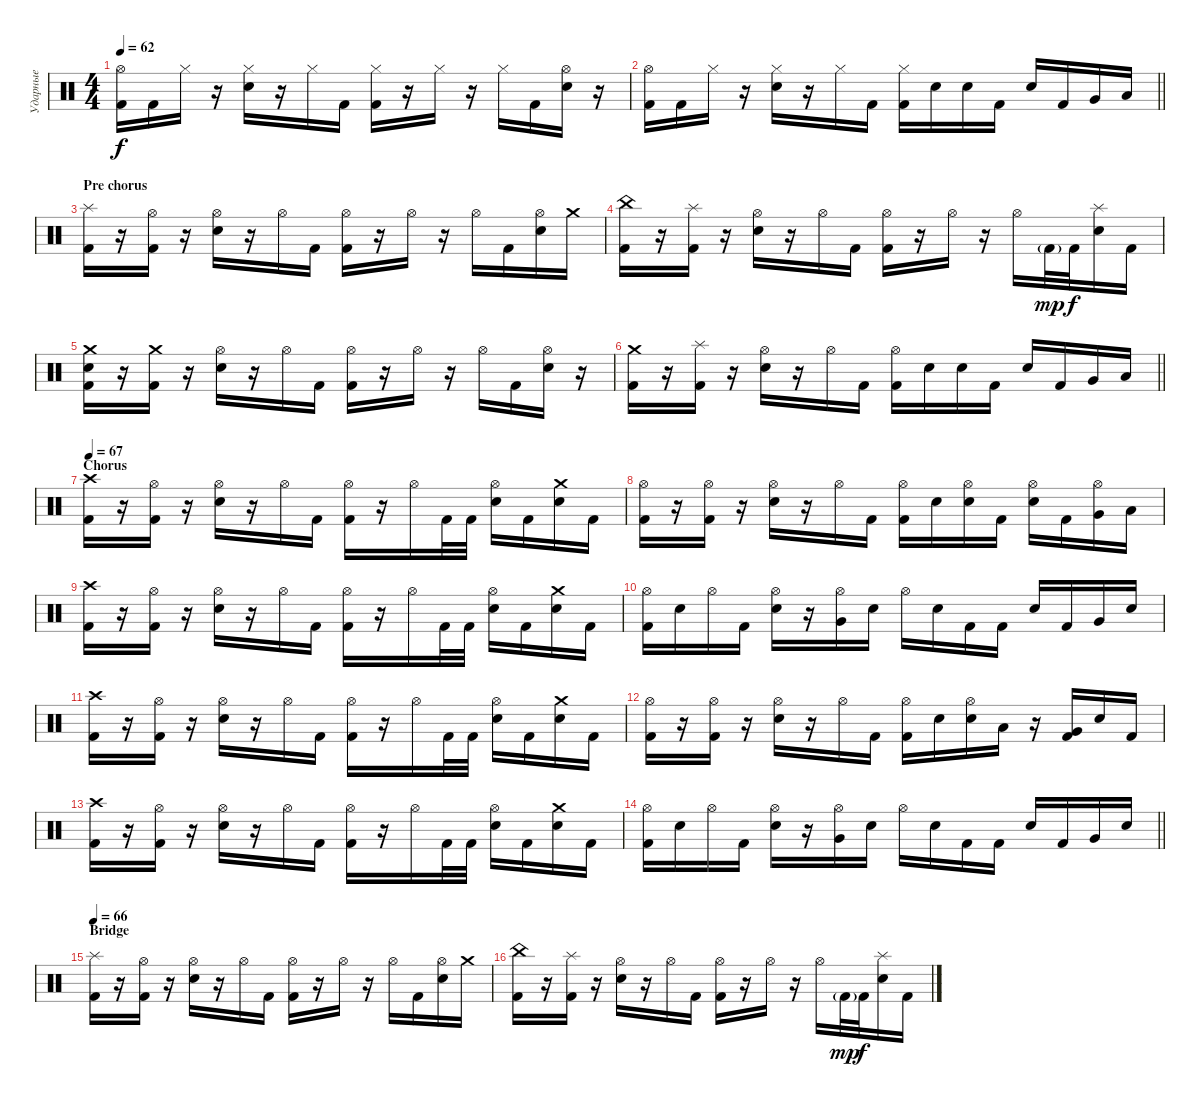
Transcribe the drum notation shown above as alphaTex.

\track ("Ударные" "Ударные") {instrument percussion}
\staff {score}
\articulation defaults
\ts (4 4)
\tempo 62
\clef neutral
\ks c
("Hi-Hat (open)" "Kick (hit) 2").16{dy f} "Kick (hit) 2".16 "Hi-Hat (closed)".16 r.16 ("Hi-Hat (closed)" "Snare (hit) 2").16 r.16 "Hi-Hat (closed)".16 "Kick (hit) 2".16 ("Hi-Hat (closed)" "Kick (hit) 2").16 r.16 "Hi-Hat (closed)".16 r.16 "Hi-Hat (closed)".16 "Kick (hit) 2".16 ("Hi-Hat (open)" "Snare (hit) 2").16 r.16 |
\barLineRight lightlight
("Hi-Hat (open)" "Kick (hit) 2").16 "Kick (hit) 2".16 "Hi-Hat (closed)".16 r.16 ("Hi-Hat (closed)" "Snare (hit) 2").16 r.16 "Hi-Hat (closed)".16 "Kick (hit) 2".16 ("Hi-Hat (closed)" "Kick (hit) 2").16 "Snare (hit) 2".16 "Snare (hit) 2".16 "Kick (hit) 2".16 "Snare (hit) 2".16 "Kick (hit) 2".16 "Very Low Tom (hit)".16 "Low Floor Tom (hit)".16 |
\section ("" "Pre chorus")
("Splash (hit)" "Kick (hit) 2").16 r.16 ("Hi-Hat (open)" "Kick (hit) 2").16 r.16 ("Hi-Hat (open)" "Snare (hit) 2").16 r.16 "Hi-Hat (open)".16 "Kick (hit) 2".16 ("Hi-Hat (open)" "Kick (hit) 2").16 r.16 "Hi-Hat (open)".16 r.16 "Hi-Hat (open)".16 "Kick (hit) 2".16 ("Hi-Hat (open)" "Snare (hit) 2").16 "Crash medium (hit)".16 |
("China (hit)" "Kick (hit) 2").16 r.16 ("Splash (hit)" "Kick (hit) 2").16 r.16 ("Hi-Hat (open)" "Snare (hit) 2").16 r.16 "Hi-Hat (open)".16 "Kick (hit) 2".16 ("Hi-Hat (open)" "Kick (hit) 2").16 r.16 "Hi-Hat (open)".16 r.16 "Hi-Hat (open)".16 "Kick (hit) 2"{g}.32{dy mp} "Kick (hit) 2".32{dy f} ("Splash (hit)" "Snare (hit) 2").16 "Kick (hit) 2".16 |
("Snare (hit) 2" "Crash medium (hit)" "Kick (hit) 2").16 r.16 ("Crash medium (hit)" "Kick (hit) 2").16 r.16 ("Hi-Hat (open)" "Snare (hit) 2").16 r.16 "Hi-Hat (open)".16 "Kick (hit) 2".16 ("Hi-Hat (open)" "Kick (hit) 2").16 r.16 "Hi-Hat (open)".16 r.16 "Hi-Hat (open)".16 "Kick (hit) 2".16 ("Hi-Hat (open)" "Snare (hit) 2").16 r.16 |
\barLineRight lightlight
("Crash medium (hit)" "Kick (hit) 2").16 r.16 ("Splash (hit)" "Kick (hit) 2").16 r.16 ("Hi-Hat (open)" "Snare (hit) 2").16 r.16 "Hi-Hat (open)".16 "Kick (hit) 2".16 ("Hi-Hat (open)" "Kick (hit) 2").16 "Snare (hit) 2".16 "Snare (hit) 2".16 "Kick (hit) 2".16 "Snare (hit) 2".16 "Kick (hit) 2".16 "Very Low Tom (hit)".16 "Low Floor Tom (hit)".16 |
\section ("" "Chorus")
\tempo 67
("Crash high (hit)" "Kick (hit) 2").16 r.16 ("Hi-Hat (open)" "Kick (hit) 2").16 r.16 ("Hi-Hat (open)" "Snare (hit) 2").16 r.16 "Hi-Hat (open)".16 "Kick (hit) 2".16 ("Hi-Hat (open)" "Kick (hit) 2").16 r.16 "Hi-Hat (open)".16 "Kick (hit) 2".32 "Kick (hit) 2".32 ("Hi-Hat (open)" "Snare (hit) 2").16 "Kick (hit) 2".16 ("Crash medium (hit)" "Snare (hit) 2").16 "Kick (hit) 2".16 |
("Hi-Hat (open)" "Kick (hit) 2").16 r.16 ("Hi-Hat (open)" "Kick (hit) 2").16 r.16 ("Hi-Hat (open)" "Snare (hit) 2").16 r.16 "Hi-Hat (open)".16 "Kick (hit) 2".16 ("Hi-Hat (open)" "Kick (hit) 2").16 "Snare (hit) 2".16 ("Hi-Hat (open)" "Snare (hit) 2").16 "Kick (hit) 2".16 ("Hi-Hat (open)" "Snare (hit) 2").16 "Kick (hit) 2".16 ("Hi-Hat (open)" "Very Low Tom (hit)").16 "Low Floor Tom (hit)".16 |
("Crash high (hit)" "Kick (hit) 2").16 r.16 ("Hi-Hat (open)" "Kick (hit) 2").16 r.16 ("Hi-Hat (open)" "Snare (hit) 2").16 r.16 "Hi-Hat (open)".16 "Kick (hit) 2".16 ("Hi-Hat (open)" "Kick (hit) 2").16 r.16 "Hi-Hat (open)".16 "Kick (hit) 2".32 "Kick (hit) 2".32 ("Hi-Hat (open)" "Snare (hit) 2").16 "Kick (hit) 2".16 ("Crash medium (hit)" "Snare (hit) 2").16 "Kick (hit) 2".16 |
("Hi-Hat (open)" "Kick (hit) 2").16 "Snare (hit) 2".16 "Hi-Hat (open)".16 "Kick (hit) 2".16 ("Hi-Hat (open)" "Snare (hit) 2").16 r.16 ("Hi-Hat (open)" "Very Low Tom (hit)").16 "Snare (hit) 2".16 "Hi-Hat (open)".16 "Snare (hit) 2".16 "Kick (hit) 2".16 "Kick (hit) 2".16 "Snare (hit) 2".16 "Kick (hit) 2".16 "Very Low Tom (hit)".16 "Snare (hit) 2".16 |
("Crash high (hit)" "Kick (hit) 2").16 r.16 ("Hi-Hat (open)" "Kick (hit) 2").16 r.16 ("Hi-Hat (open)" "Snare (hit) 2").16 r.16 "Hi-Hat (open)".16 "Kick (hit) 2".16 ("Hi-Hat (open)" "Kick (hit) 2").16 r.16 "Hi-Hat (open)".16 "Kick (hit) 2".32 "Kick (hit) 2".32 ("Hi-Hat (open)" "Snare (hit) 2").16 "Kick (hit) 2".16 ("Crash medium (hit)" "Snare (hit) 2").16 "Kick (hit) 2".16 |
("Hi-Hat (open)" "Kick (hit) 2").16 r.16 ("Hi-Hat (open)" "Kick (hit) 2").16 r.16 ("Hi-Hat (open)" "Snare (hit) 2").16 r.16 "Hi-Hat (open)".16 "Kick (hit) 2".16 ("Hi-Hat (open)" "Kick (hit) 2").16 "Snare (hit) 2".16 ("Hi-Hat (open)" "Snare (hit) 2").16 "Low Floor Tom (hit)".16 r.16 ("Very Low Tom (hit)" "Kick (hit) 2").16 "Snare (hit) 2".16 "Kick (hit) 2".16 |
("Crash high (hit)" "Kick (hit) 2").16 r.16 ("Hi-Hat (open)" "Kick (hit) 2").16 r.16 ("Hi-Hat (open)" "Snare (hit) 2").16 r.16 "Hi-Hat (open)".16 "Kick (hit) 2".16 ("Hi-Hat (open)" "Kick (hit) 2").16 r.16 "Hi-Hat (open)".16 "Kick (hit) 2".32 "Kick (hit) 2".32 ("Hi-Hat (open)" "Snare (hit) 2").16 "Kick (hit) 2".16 ("Crash medium (hit)" "Snare (hit) 2").16 "Kick (hit) 2".16 |
\barLineRight lightlight
("Hi-Hat (open)" "Kick (hit) 2").16 "Snare (hit) 2".16 "Hi-Hat (open)".16 "Kick (hit) 2".16 ("Hi-Hat (open)" "Snare (hit) 2").16 r.16 ("Hi-Hat (open)" "Very Low Tom (hit)").16 "Snare (hit) 2".16 "Hi-Hat (open)".16 "Snare (hit) 2".16 "Kick (hit) 2".16 "Kick (hit) 2".16 "Snare (hit) 2".16 "Kick (hit) 2".16 "Very Low Tom (hit)".16 "Snare (hit) 2".16 |
\section ("" "Bridge")
\tempo 66
("Splash (hit)" "Kick (hit) 2").16 r.16 ("Hi-Hat (open)" "Kick (hit) 2").16 r.16 ("Hi-Hat (open)" "Snare (hit) 2").16 r.16 "Hi-Hat (open)".16 "Kick (hit) 2".16 ("Hi-Hat (open)" "Kick (hit) 2").16 r.16 "Hi-Hat (open)".16 r.16 "Hi-Hat (open)".16 "Kick (hit) 2".16 ("Hi-Hat (open)" "Snare (hit) 2").16 "Crash medium (hit)".16 |
("China (hit)" "Kick (hit) 2").16 r.16 ("Splash (hit)" "Kick (hit) 2").16 r.16 ("Hi-Hat (open)" "Snare (hit) 2").16 r.16 "Hi-Hat (open)".16 "Kick (hit) 2".16 ("Hi-Hat (open)" "Kick (hit) 2").16 r.16 "Hi-Hat (open)".16 r.16 "Hi-Hat (open)".16 "Kick (hit) 2"{g}.32{dy mp} "Kick (hit) 2".32{dy f} ("Splash (hit)" "Snare (hit) 2").16 "Kick (hit) 2".16
